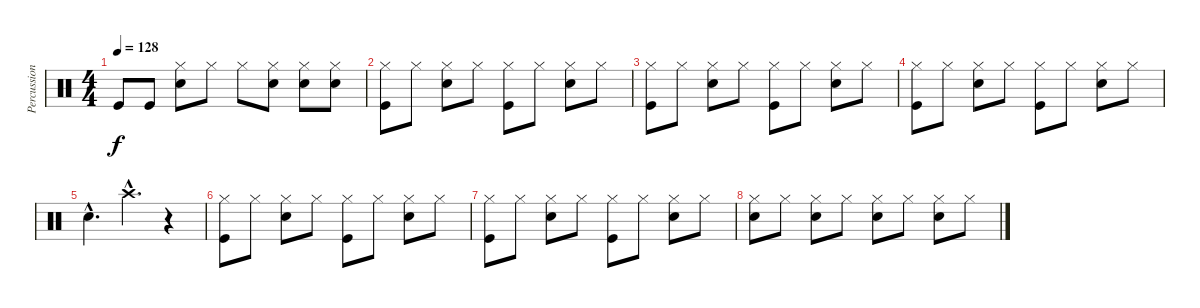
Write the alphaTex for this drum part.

\track ("Percussion" "Percussion") {instrument percussion}
\staff {score}
\articulation defaults
\ts (4 4)
\tempo 128
\clef neutral
\ks c "Kick (hit)".8{dy f} "Kick (hit)".8
("Hi-Hat (closed)" "Snare (hit) 2").8 "Hi-Hat (closed)".8 "Hi-Hat (closed)".8 ("Hi-Hat (closed)" "Snare (hit) 2").8 ("Hi-Hat (closed)" "Snare (hit) 2").8 ("Hi-Hat (closed)" "Snare (hit) 2").8 |
("Hi-Hat (closed)" "Kick (hit)").8 "Hi-Hat (closed)".8 ("Hi-Hat (closed)" "Snare (hit) 2").8 "Hi-Hat (closed)".8 ("Hi-Hat (closed)" "Kick (hit)").8 "Hi-Hat (closed)".8 ("Hi-Hat (closed)" "Snare (hit) 2").8 "Hi-Hat (closed)".8 |
("Hi-Hat (closed)" "Kick (hit)").8 "Hi-Hat (closed)".8 ("Hi-Hat (closed)" "Snare (hit) 2").8 "Hi-Hat (closed)".8 ("Hi-Hat (closed)" "Kick (hit)").8 "Hi-Hat (closed)".8 ("Hi-Hat (closed)" "Snare (hit) 2").8 "Hi-Hat (closed)".8 |
("Hi-Hat (closed)" "Kick (hit)").8 "Hi-Hat (closed)".8 ("Hi-Hat (closed)" "Snare (hit) 2").8 "Hi-Hat (closed)".8 ("Hi-Hat (closed)" "Kick (hit)").8 "Hi-Hat (closed)".8 ("Hi-Hat (closed)" "Snare (hit) 2").8 "Hi-Hat (closed)".8 |
"Snare (hit) 2"{hac}.4{d} "Crash high (hit)"{hac}.4{d} r.4 |
("Hi-Hat (closed)" "Kick (hit)").8 "Hi-Hat (closed)".8 ("Hi-Hat (closed)" "Snare (hit) 2").8 "Hi-Hat (closed)".8 ("Hi-Hat (closed)" "Kick (hit)").8 "Hi-Hat (closed)".8 ("Hi-Hat (closed)" "Snare (hit) 2").8 "Hi-Hat (closed)".8 |
("Hi-Hat (closed)" "Kick (hit)").8 "Hi-Hat (closed)".8 ("Hi-Hat (closed)" "Snare (hit) 2").8 "Hi-Hat (closed)".8 ("Hi-Hat (closed)" "Kick (hit)").8 "Hi-Hat (closed)".8 ("Hi-Hat (closed)" "Snare (hit) 2").8 "Hi-Hat (closed)".8 |
("Hi-Hat (closed)" "Snare (hit) 2").8 "Hi-Hat (closed)".8 ("Hi-Hat (closed)" "Snare (hit) 2").8 "Hi-Hat (closed)".8 ("Hi-Hat (closed)" "Snare (hit) 2").8 "Hi-Hat (closed)".8 ("Hi-Hat (closed)" "Snare (hit) 2").8 "Hi-Hat (closed)".8
